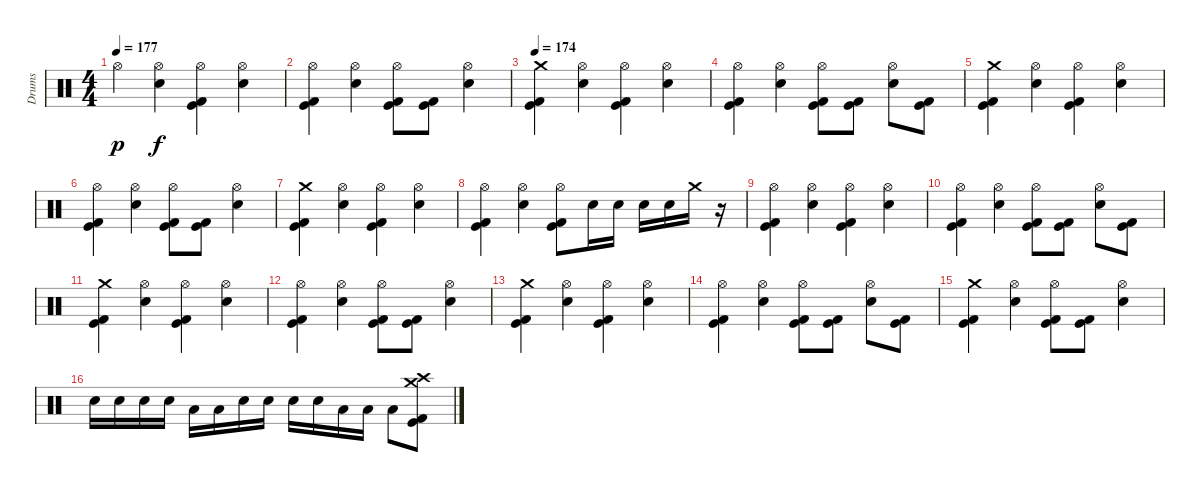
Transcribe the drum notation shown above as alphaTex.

\track ("Drums" "Drums") {instrument percussion}
\staff {score}
\articulation defaults
\ts (4 4)
\tempo 177
\clef neutral
\ks c "Hi-Hat (open)".4{dy p}
("Hi-Hat (open)" "Electric Snare (hit)").4{dy f} ("Hi-Hat (open)" "Kick (hit) 2" "Kick (hit)").4 ("Hi-Hat (open)" "Electric Snare (hit)").4 |
("Hi-Hat (open)" "Kick (hit) 2" "Kick (hit)").4 ("Hi-Hat (open)" "Electric Snare (hit)").4 ("Hi-Hat (open)" "Kick (hit) 2" "Kick (hit)").8 ("Kick (hit) 2" "Kick (hit)").8 ("Hi-Hat (open)" "Electric Snare (hit)").4 |
\tempo 174
("Crash medium (hit)" "Kick (hit) 2" "Kick (hit)").4 ("Hi-Hat (open)" "Electric Snare (hit)").4 ("Hi-Hat (open)" "Kick (hit) 2" "Kick (hit)").4 ("Hi-Hat (open)" "Electric Snare (hit)").4 |
("Hi-Hat (open)" "Kick (hit) 2" "Kick (hit)").4 ("Hi-Hat (open)" "Electric Snare (hit)").4 ("Hi-Hat (open)" "Kick (hit) 2" "Kick (hit)").8 ("Kick (hit) 2" "Kick (hit)").8 ("Hi-Hat (open)" "Electric Snare (hit)").8 ("Kick (hit) 2" "Kick (hit)").8 |
("Crash medium (hit)" "Kick (hit) 2" "Kick (hit)").4 ("Hi-Hat (open)" "Electric Snare (hit)").4 ("Hi-Hat (open)" "Kick (hit) 2" "Kick (hit)").4 ("Hi-Hat (open)" "Electric Snare (hit)").4 |
("Hi-Hat (open)" "Kick (hit) 2" "Kick (hit)").4 ("Hi-Hat (open)" "Electric Snare (hit)").4 ("Hi-Hat (open)" "Kick (hit) 2" "Kick (hit)").8 ("Kick (hit) 2" "Kick (hit)").8 ("Hi-Hat (open)" "Electric Snare (hit)").4 |
("Crash medium (hit)" "Kick (hit) 2" "Kick (hit)").4 ("Hi-Hat (open)" "Electric Snare (hit)").4 ("Hi-Hat (open)" "Kick (hit) 2" "Kick (hit)").4 ("Hi-Hat (open)" "Electric Snare (hit)").4 |
("Hi-Hat (open)" "Kick (hit) 2" "Kick (hit)").4 ("Hi-Hat (open)" "Electric Snare (hit)").4 ("Hi-Hat (open)" "Kick (hit) 2" "Kick (hit)").8 "Electric Snare (hit)".16 "Electric Snare (hit)".16 "Electric Snare (hit)".16 "Electric Snare (hit)".16 "Crash medium (hit)".16 r.16 |
("Hi-Hat (open)" "Kick (hit) 2" "Kick (hit)").4 ("Hi-Hat (open)" "Electric Snare (hit)").4 ("Hi-Hat (open)" "Kick (hit) 2" "Kick (hit)").4 ("Hi-Hat (open)" "Electric Snare (hit)").4 |
("Hi-Hat (open)" "Kick (hit) 2" "Kick (hit)").4 ("Hi-Hat (open)" "Electric Snare (hit)").4 ("Hi-Hat (open)" "Kick (hit) 2" "Kick (hit)").8 ("Kick (hit) 2" "Kick (hit)").8 ("Hi-Hat (open)" "Electric Snare (hit)").8 ("Kick (hit) 2" "Kick (hit)").8 |
("Crash medium (hit)" "Kick (hit) 2" "Kick (hit)").4 ("Hi-Hat (open)" "Electric Snare (hit)").4 ("Hi-Hat (open)" "Kick (hit) 2" "Kick (hit)").4 ("Hi-Hat (open)" "Electric Snare (hit)").4 |
("Hi-Hat (open)" "Kick (hit) 2" "Kick (hit)").4 ("Hi-Hat (open)" "Electric Snare (hit)").4 ("Hi-Hat (open)" "Kick (hit) 2" "Kick (hit)").8 ("Kick (hit) 2" "Kick (hit)").8 ("Hi-Hat (open)" "Electric Snare (hit)").4 |
("Crash medium (hit)" "Kick (hit) 2" "Kick (hit)").4 ("Hi-Hat (open)" "Electric Snare (hit)").4 ("Hi-Hat (open)" "Kick (hit) 2" "Kick (hit)").4 ("Hi-Hat (open)" "Electric Snare (hit)").4 |
("Hi-Hat (open)" "Kick (hit) 2" "Kick (hit)").4 ("Hi-Hat (open)" "Electric Snare (hit)").4 ("Hi-Hat (open)" "Kick (hit) 2" "Kick (hit)").8 ("Kick (hit) 2" "Kick (hit)").8 ("Hi-Hat (open)" "Electric Snare (hit)").8 ("Kick (hit) 2" "Kick (hit)").8 |
("Crash medium (hit)" "Kick (hit) 2" "Kick (hit)").4 ("Hi-Hat (open)" "Electric Snare (hit)").4 ("Hi-Hat (open)" "Kick (hit) 2" "Kick (hit)").8 ("Kick (hit) 2" "Kick (hit)").8 ("Hi-Hat (open)" "Electric Snare (hit)").4 |
"Electric Snare (hit)".16 "Electric Snare (hit)".16 "Electric Snare (hit)".16 "Electric Snare (hit)".16 "Low Floor Tom (hit)".16 "Low Floor Tom (hit)".16 "Electric Snare (hit)".16 "Electric Snare (hit)".16 "Electric Snare (hit)".16 "Electric Snare (hit)".16 "Low Floor Tom (hit)".16 "Low Floor Tom (hit)".16 "Low Floor Tom (hit)".8 ("Crash medium (hit)" "Crash high (hit)" "Kick (hit) 2" "Kick (hit)").8
